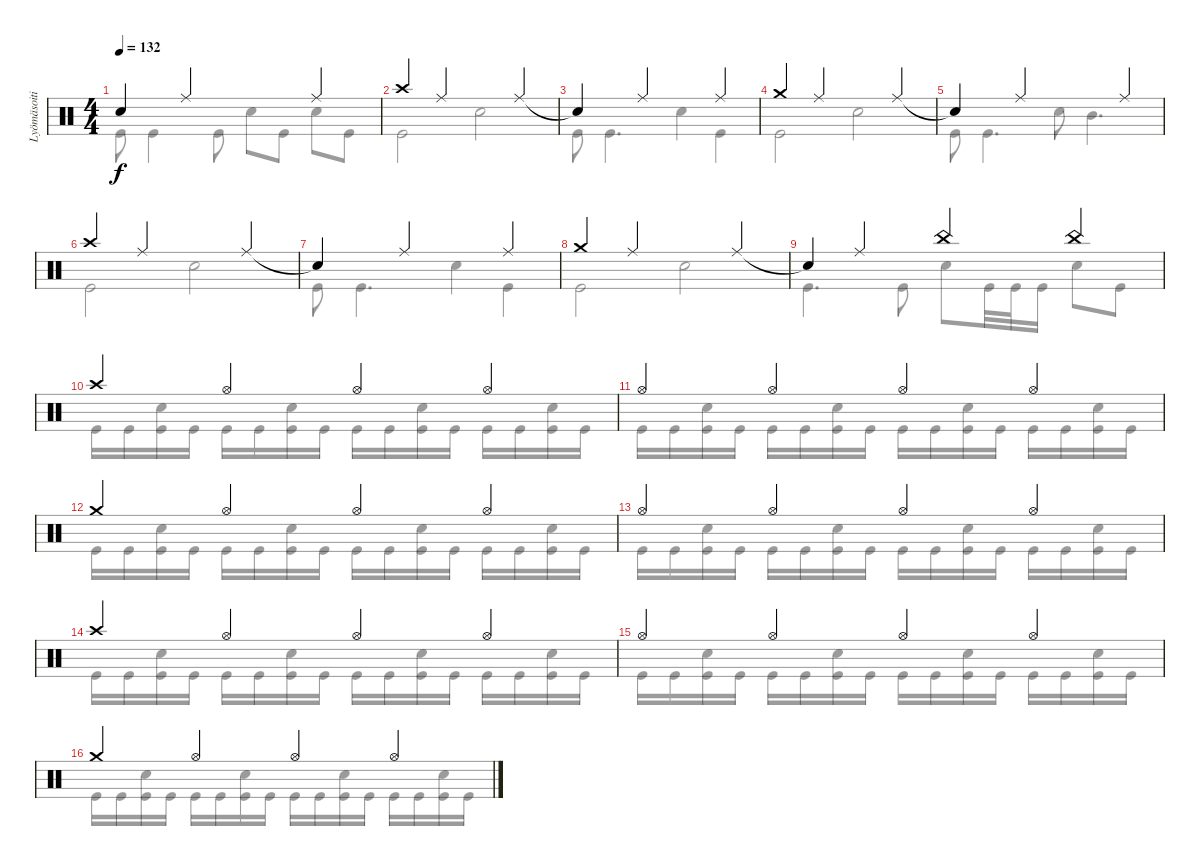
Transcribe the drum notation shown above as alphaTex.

\track ("Lyömäsoitin" "Lyömäsoiti") {instrument percussion}
\staff {score}
\articulation defaults
\voice
\ts (4 4)
\tempo 132
\clef neutral
\ks c "Snare (hit)"{t}.4{dy f} "Ride (middle)".2 "Ride (middle)".4
|
"Crash high (hit)".4 "Ride (middle)".2 "Ride (middle)".4 |
"Snare (hit)"{t}.4 "Ride (middle)".2 "Ride (middle)".4 |
"Crash medium (hit)".4 "Ride (middle)".2 "Ride (middle)".4 |
"Snare (hit)"{t}.4 "Ride (middle)".2 "Ride (middle)".4 |
"Crash high (hit)".4 "Ride (middle)".2 "Ride (middle)".4 |
"Snare (hit)"{t}.4 "Ride (middle)".2 "Ride (middle)".4 |
"Crash medium (hit)".4 "Ride (middle)".2 "Ride (middle)".4 |
"Snare (hit)"{t}.4 "Ride (middle)".4 "China (hit)".4 "China (hit)".4 |
"Crash high (hit)".4 "Hi-Hat (open)".4 "Hi-Hat (open)".4 "Hi-Hat (open)".4 |
"Hi-Hat (open)".4 "Hi-Hat (open)".4 "Hi-Hat (open)".4 "Hi-Hat (open)".4 |
"Crash medium (hit)".4 "Hi-Hat (open)".4 "Hi-Hat (open)".4 "Hi-Hat (open)".4 |
"Hi-Hat (open)".4 "Hi-Hat (open)".4 "Hi-Hat (open)".4 "Hi-Hat (open)".4 |
"Crash high (hit)".4 "Hi-Hat (open)".4 "Hi-Hat (open)".4 "Hi-Hat (open)".4 |
"Hi-Hat (open)".4 "Hi-Hat (open)".4 "Hi-Hat (open)".4 "Hi-Hat (open)".4 |
"Crash medium (hit)".4 "Hi-Hat (open)".4 "Hi-Hat (open)".4 "Hi-Hat (open)".4
\voice
\clef neutral
\ottava regular
\simile none
\ks c "Kick (hit)".8{dy f} "Kick (hit)".4 "Kick (hit)".8 "Electric Snare (hit)".8 "Kick (hit)".8 "Electric Snare (hit)".8 "Kick (hit)".8
|
"Kick (hit)".2 "Electric Snare (hit)".2 |
"Kick (hit)".8 "Kick (hit)".4{d} "Electric Snare (hit)".4 "Kick (hit)".4 |
"Kick (hit)".2 "Electric Snare (hit)".2 |
"Kick (hit)".8 "Kick (hit)".4{d} "Electric Snare (hit)".8 "Mid Tom (hit)".4{d} |
"Kick (hit)".2 "Electric Snare (hit)".2 |
"Kick (hit)".8 "Kick (hit)".4{d} "Electric Snare (hit)".4 "Kick (hit)".4 |
"Kick (hit)".2 "Electric Snare (hit)".2 |
"Kick (hit)".4{d} "Kick (hit)".8 "Electric Snare (hit)".8 "Kick (hit)".32 "Kick (hit)".32 "Kick (hit)".16 "Electric Snare (hit)".8 "Kick (hit)".8 |
"Kick (hit)".16 "Kick (hit)".16 ("Electric Snare (hit)" "Kick (hit)").16 "Kick (hit)".16 "Kick (hit)".16 "Kick (hit)".16 ("Electric Snare (hit)" "Kick (hit)").16 "Kick (hit)".16 "Kick (hit)".16 "Kick (hit)".16 ("Electric Snare (hit)" "Kick (hit)").16 "Kick (hit)".16 "Kick (hit)".16 "Kick (hit)".16 ("Electric Snare (hit)" "Kick (hit)").16 "Kick (hit)".16 |
"Kick (hit)".16 "Kick (hit)".16 ("Electric Snare (hit)" "Kick (hit)").16 "Kick (hit)".16 "Kick (hit)".16 "Kick (hit)".16 ("Electric Snare (hit)" "Kick (hit)").16 "Kick (hit)".16 "Kick (hit)".16 "Kick (hit)".16 ("Electric Snare (hit)" "Kick (hit)").16 "Kick (hit)".16 "Kick (hit)".16 "Kick (hit)".16 ("Electric Snare (hit)" "Kick (hit)").16 "Kick (hit)".16 |
"Kick (hit)".16 "Kick (hit)".16 ("Electric Snare (hit)" "Kick (hit)").16 "Kick (hit)".16 "Kick (hit)".16 "Kick (hit)".16 ("Electric Snare (hit)" "Kick (hit)").16 "Kick (hit)".16 "Kick (hit)".16 "Kick (hit)".16 ("Electric Snare (hit)" "Kick (hit)").16 "Kick (hit)".16 "Kick (hit)".16 "Kick (hit)".16 ("Electric Snare (hit)" "Kick (hit)").16 "Kick (hit)".16 |
"Kick (hit)".16 "Kick (hit)".16 ("Electric Snare (hit)" "Kick (hit)").16 "Kick (hit)".16 "Kick (hit)".16 "Kick (hit)".16 ("Electric Snare (hit)" "Kick (hit)").16 "Kick (hit)".16 "Kick (hit)".16 "Kick (hit)".16 ("Electric Snare (hit)" "Kick (hit)").16 "Kick (hit)".16 "Kick (hit)".16 "Kick (hit)".16 ("Electric Snare (hit)" "Kick (hit)").16 "Kick (hit)".16 |
"Kick (hit)".16 "Kick (hit)".16 ("Electric Snare (hit)" "Kick (hit)").16 "Kick (hit)".16 "Kick (hit)".16 "Kick (hit)".16 ("Electric Snare (hit)" "Kick (hit)").16 "Kick (hit)".16 "Kick (hit)".16 "Kick (hit)".16 ("Electric Snare (hit)" "Kick (hit)").16 "Kick (hit)".16 "Kick (hit)".16 "Kick (hit)".16 ("Electric Snare (hit)" "Kick (hit)").16 "Kick (hit)".16 |
"Kick (hit)".16 "Kick (hit)".16 ("Electric Snare (hit)" "Kick (hit)").16 "Kick (hit)".16 "Kick (hit)".16 "Kick (hit)".16 ("Electric Snare (hit)" "Kick (hit)").16 "Kick (hit)".16 "Kick (hit)".16 "Kick (hit)".16 ("Electric Snare (hit)" "Kick (hit)").16 "Kick (hit)".16 "Kick (hit)".16 "Kick (hit)".16 ("Electric Snare (hit)" "Kick (hit)").16 "Kick (hit)".16 |
"Kick (hit)".16 "Kick (hit)".16 ("Electric Snare (hit)" "Kick (hit)").16 "Kick (hit)".16 "Kick (hit)".16 "Kick (hit)".16 ("Electric Snare (hit)" "Kick (hit)").16 "Kick (hit)".16 "Kick (hit)".16 "Kick (hit)".16 ("Electric Snare (hit)" "Kick (hit)").16 "Kick (hit)".16 "Kick (hit)".16 "Kick (hit)".16 ("Electric Snare (hit)" "Kick (hit)").16 "Kick (hit)".16
